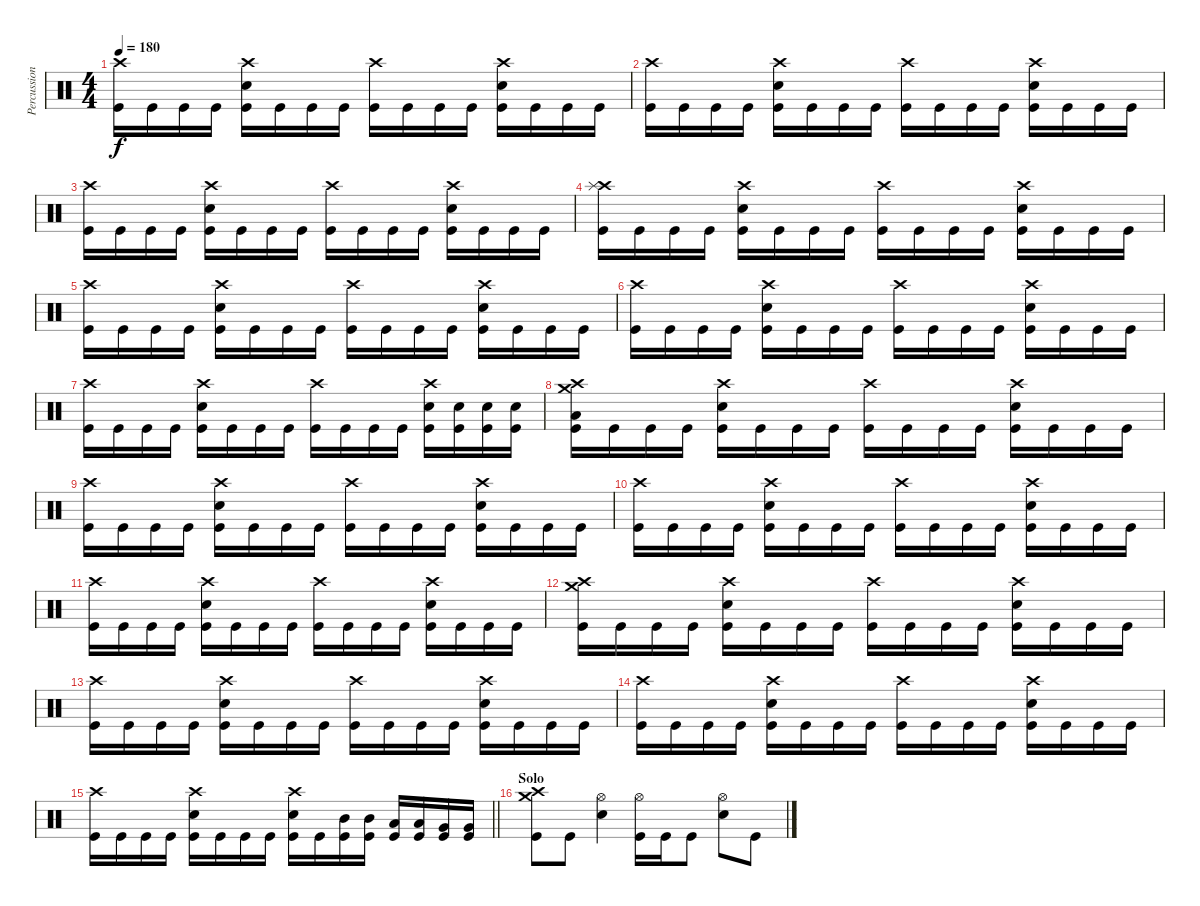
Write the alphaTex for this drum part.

\track ("Percussion" "Percussion") {instrument percussion}
\staff {score}
\articulation defaults
\ts (4 4)
\tempo 180
\clef neutral
\ks c
("Crash high (hit)" "Kick (hit)").16{dy f} "Kick (hit)".16 "Kick (hit)".16 "Kick (hit)".16 ("Crash high (hit)" "Electric Snare (hit)" "Kick (hit)").16 "Kick (hit)".16 "Kick (hit)".16 "Kick (hit)".16 ("Crash high (hit)" "Kick (hit)").16 "Kick (hit)".16 "Kick (hit)".16 "Kick (hit)".16 ("Crash high (hit)" "Electric Snare (hit)" "Kick (hit)").16 "Kick (hit)".16 "Kick (hit)".16 "Kick (hit)".16 |
("Crash high (hit)" "Kick (hit)").16 "Kick (hit)".16 "Kick (hit)".16 "Kick (hit)".16 ("Crash high (hit)" "Electric Snare (hit)" "Kick (hit)").16 "Kick (hit)".16 "Kick (hit)".16 "Kick (hit)".16 ("Crash high (hit)" "Kick (hit)").16 "Kick (hit)".16 "Kick (hit)".16 "Kick (hit)".16 ("Crash high (hit)" "Electric Snare (hit)" "Kick (hit)").16 "Kick (hit)".16 "Kick (hit)".16 "Kick (hit)".16 |
("Crash high (hit)" "Kick (hit)").16 "Kick (hit)".16 "Kick (hit)".16 "Kick (hit)".16 ("Crash high (hit)" "Electric Snare (hit)" "Kick (hit)").16 "Kick (hit)".16 "Kick (hit)".16 "Kick (hit)".16 ("Crash high (hit)" "Kick (hit)").16 "Kick (hit)".16 "Kick (hit)".16 "Kick (hit)".16 ("Crash high (hit)" "Electric Snare (hit)" "Kick (hit)").16 "Kick (hit)".16 "Kick (hit)".16 "Kick (hit)".16 |
("Crash high (hit)" "Splash (hit)" "Kick (hit)").16 "Kick (hit)".16 "Kick (hit)".16 "Kick (hit)".16 ("Crash high (hit)" "Electric Snare (hit)" "Kick (hit)").16 "Kick (hit)".16 "Kick (hit)".16 "Kick (hit)".16 ("Crash high (hit)" "Kick (hit)").16 "Kick (hit)".16 "Kick (hit)".16 "Kick (hit)".16 ("Crash high (hit)" "Electric Snare (hit)" "Kick (hit)").16 "Kick (hit)".16 "Kick (hit)".16 "Kick (hit)".16 |
("Crash high (hit)" "Kick (hit)").16 "Kick (hit)".16 "Kick (hit)".16 "Kick (hit)".16 ("Crash high (hit)" "Electric Snare (hit)" "Kick (hit)").16 "Kick (hit)".16 "Kick (hit)".16 "Kick (hit)".16 ("Crash high (hit)" "Kick (hit)").16 "Kick (hit)".16 "Kick (hit)".16 "Kick (hit)".16 ("Crash high (hit)" "Electric Snare (hit)" "Kick (hit)").16 "Kick (hit)".16 "Kick (hit)".16 "Kick (hit)".16 |
("Crash high (hit)" "Kick (hit)").16 "Kick (hit)".16 "Kick (hit)".16 "Kick (hit)".16 ("Crash high (hit)" "Electric Snare (hit)" "Kick (hit)").16 "Kick (hit)".16 "Kick (hit)".16 "Kick (hit)".16 ("Crash high (hit)" "Kick (hit)").16 "Kick (hit)".16 "Kick (hit)".16 "Kick (hit)".16 ("Crash high (hit)" "Electric Snare (hit)" "Kick (hit)").16 "Kick (hit)".16 "Kick (hit)".16 "Kick (hit)".16 |
("Crash high (hit)" "Kick (hit)").16 "Kick (hit)".16 "Kick (hit)".16 "Kick (hit)".16 ("Crash high (hit)" "Electric Snare (hit)" "Kick (hit)").16 "Kick (hit)".16 "Kick (hit)".16 "Kick (hit)".16 ("Crash high (hit)" "Kick (hit)").16 "Kick (hit)".16 "Kick (hit)".16 "Kick (hit)".16 ("Crash high (hit)" "Electric Snare (hit)" "Kick (hit)").16 ("Electric Snare (hit)" "Kick (hit)").16 ("Electric Snare (hit)" "Kick (hit)").16 ("Electric Snare (hit)" "Kick (hit)").16 |
("Crash high (hit)" "Crash medium (hit)" "Low Floor Tom (hit)" "Kick (hit)").16 "Kick (hit)".16 "Kick (hit)".16 "Kick (hit)".16 ("Crash high (hit)" "Electric Snare (hit)" "Kick (hit)").16 "Kick (hit)".16 "Kick (hit)".16 "Kick (hit)".16 ("Crash high (hit)" "Kick (hit)").16 "Kick (hit)".16 "Kick (hit)".16 "Kick (hit)".16 ("Crash high (hit)" "Electric Snare (hit)" "Kick (hit)").16 "Kick (hit)".16 "Kick (hit)".16 "Kick (hit)".16 |
("Crash high (hit)" "Kick (hit)").16 "Kick (hit)".16 "Kick (hit)".16 "Kick (hit)".16 ("Crash high (hit)" "Electric Snare (hit)" "Kick (hit)").16 "Kick (hit)".16 "Kick (hit)".16 "Kick (hit)".16 ("Crash high (hit)" "Kick (hit)").16 "Kick (hit)".16 "Kick (hit)".16 "Kick (hit)".16 ("Crash high (hit)" "Electric Snare (hit)" "Kick (hit)").16 "Kick (hit)".16 "Kick (hit)".16 "Kick (hit)".16 |
("Crash high (hit)" "Kick (hit)").16 "Kick (hit)".16 "Kick (hit)".16 "Kick (hit)".16 ("Crash high (hit)" "Electric Snare (hit)" "Kick (hit)").16 "Kick (hit)".16 "Kick (hit)".16 "Kick (hit)".16 ("Crash high (hit)" "Kick (hit)").16 "Kick (hit)".16 "Kick (hit)".16 "Kick (hit)".16 ("Crash high (hit)" "Electric Snare (hit)" "Kick (hit)").16 "Kick (hit)".16 "Kick (hit)".16 "Kick (hit)".16 |
("Crash high (hit)" "Kick (hit)").16 "Kick (hit)".16 "Kick (hit)".16 "Kick (hit)".16 ("Crash high (hit)" "Electric Snare (hit)" "Kick (hit)").16 "Kick (hit)".16 "Kick (hit)".16 "Kick (hit)".16 ("Crash high (hit)" "Kick (hit)").16 "Kick (hit)".16 "Kick (hit)".16 "Kick (hit)".16 ("Crash high (hit)" "Electric Snare (hit)" "Kick (hit)").16 "Kick (hit)".16 "Kick (hit)".16 "Kick (hit)".16 |
("Crash high (hit)" "Crash medium (hit)" "Kick (hit)").16 "Kick (hit)".16 "Kick (hit)".16 "Kick (hit)".16 ("Crash high (hit)" "Electric Snare (hit)" "Kick (hit)").16 "Kick (hit)".16 "Kick (hit)".16 "Kick (hit)".16 ("Crash high (hit)" "Kick (hit)").16 "Kick (hit)".16 "Kick (hit)".16 "Kick (hit)".16 ("Crash high (hit)" "Electric Snare (hit)" "Kick (hit)").16 "Kick (hit)".16 "Kick (hit)".16 "Kick (hit)".16 |
("Crash high (hit)" "Kick (hit)").16 "Kick (hit)".16 "Kick (hit)".16 "Kick (hit)".16 ("Crash high (hit)" "Electric Snare (hit)" "Kick (hit)").16 "Kick (hit)".16 "Kick (hit)".16 "Kick (hit)".16 ("Crash high (hit)" "Kick (hit)").16 "Kick (hit)".16 "Kick (hit)".16 "Kick (hit)".16 ("Crash high (hit)" "Electric Snare (hit)" "Kick (hit)").16 "Kick (hit)".16 "Kick (hit)".16 "Kick (hit)".16 |
("Crash high (hit)" "Kick (hit)").16 "Kick (hit)".16 "Kick (hit)".16 "Kick (hit)".16 ("Crash high (hit)" "Electric Snare (hit)" "Kick (hit)").16 "Kick (hit)".16 "Kick (hit)".16 "Kick (hit)".16 ("Crash high (hit)" "Kick (hit)").16 "Kick (hit)".16 "Kick (hit)".16 "Kick (hit)".16 ("Crash high (hit)" "Electric Snare (hit)" "Kick (hit)").16 "Kick (hit)".16 "Kick (hit)".16 "Kick (hit)".16 |
\barLineRight lightlight
("Crash high (hit)" "Kick (hit)").16 "Kick (hit)".16 "Kick (hit)".16 "Kick (hit)".16 ("Crash high (hit)" "Electric Snare (hit)" "Kick (hit)").16 "Kick (hit)".16 "Kick (hit)".16 "Kick (hit)".16 ("Crash high (hit)" "Electric Snare (hit)" "Kick (hit)").16 "Kick (hit)".16 ("Mid Tom (hit)" "Kick (hit)").16 ("Mid Tom (hit)" "Kick (hit)").16 ("Low Tom (hit)" "Kick (hit)").16 ("Low Tom (hit)" "Kick (hit)").16 ("Very Low Tom (hit)" "Kick (hit)").16 ("Very Low Tom (hit)" "Kick (hit)").16 |
\section ("" "Solo")
("Crash high (hit)" "Crash medium (hit)" "Kick (hit)").8 "Kick (hit)".8 ("Hi-Hat (open)" "Electric Snare (hit)").4 ("Hi-Hat (open)" "Kick (hit)").16 "Kick (hit)".16 "Kick (hit)".8 ("Hi-Hat (open)" "Electric Snare (hit)").8 "Kick (hit)".8
